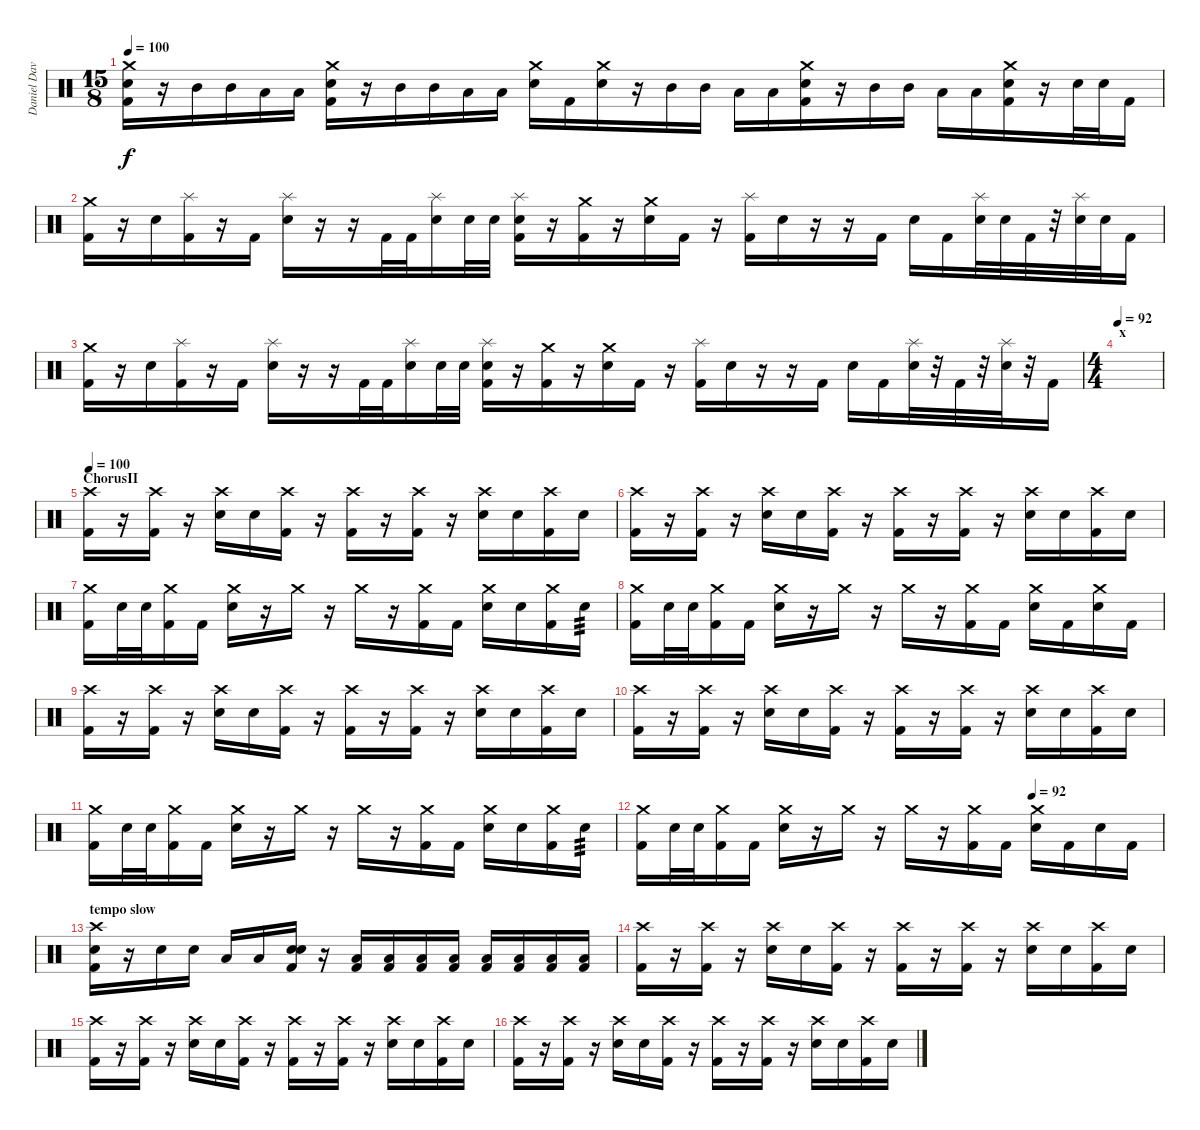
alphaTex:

\track ("Daniel Davison" "Daniel Dav") {instrument percussion}
\staff {score}
\articulation defaults
\ts (15 8)
\tempo 100
\clef neutral
\ks c
("Crash medium (hit)" "Electric Snare (hit)" "Kick (hit) 2").16{dy f} r.16 "Mid Tom (hit)".16 "Mid Tom (hit)".16 "Low Tom (hit)".16 "Low Tom (hit)".16 ("Crash medium (hit)" "Electric Snare (hit)" "Kick (hit) 2").16 r.16 "Mid Tom (hit)".16 "Mid Tom (hit)".16 "Low Tom (hit)".16 "Low Tom (hit)".16 ("Crash medium (hit)" "Electric Snare (hit)").16 "Kick (hit) 2".16 ("Crash medium (hit)" "Electric Snare (hit)").16 r.16 "Mid Tom (hit)".16 "Mid Tom (hit)".16 "Low Tom (hit)".16 "Low Tom (hit)".16 ("Crash medium (hit)" "Electric Snare (hit)" "Kick (hit) 2").16 r.16 "Mid Tom (hit)".16 "Mid Tom (hit)".16 "Low Tom (hit)".16 "Low Tom (hit)".16 ("Crash medium (hit)" "Electric Snare (hit)" "Kick (hit) 2").16 r.16 "Electric Snare (hit)".32 "Electric Snare (hit)".32 "Kick (hit) 2".16 |
("Crash medium (hit)" "Kick (hit) 2").16 r.16 "Electric Snare (hit)".16 ("Splash (hit)" "Kick (hit) 2").16 r.16 "Kick (hit) 2".16 ("Splash (hit)" "Electric Snare (hit)").16 r.16 r.16 "Kick (hit) 2".32 "Kick (hit) 2".32 ("Splash (hit)" "Electric Snare (hit)").16 "Electric Snare (hit)".32 "Electric Snare (hit)".32 ("Splash (hit)" "Electric Snare (hit)" "Kick (hit) 2").16 r.16 ("Crash medium (hit)" "Kick (hit) 2").16 r.16 ("Crash medium (hit)" "Electric Snare (hit)").16 "Kick (hit) 2".16 r.16 ("Splash (hit)" "Kick (hit) 2").16 "Electric Snare (hit)".16 r.16 r.16 "Kick (hit) 2".16 "Electric Snare (hit)".16 "Kick (hit) 2".16 ("Splash (hit)" "Electric Snare (hit)").32 "Electric Snare (hit)".32 "Kick (hit) 2".32 r.32 ("Splash (hit)" "Electric Snare (hit)").32 "Electric Snare (hit)".32 "Kick (hit) 2".16 |
("Crash medium (hit)" "Kick (hit) 2").16 r.16 "Electric Snare (hit)".16 ("Splash (hit)" "Kick (hit) 2").16 r.16 "Kick (hit) 2".16 ("Splash (hit)" "Electric Snare (hit)").16 r.16 r.16 "Kick (hit) 2".32 "Kick (hit) 2".32 ("Splash (hit)" "Electric Snare (hit)").16 "Electric Snare (hit)".32 "Electric Snare (hit)".32 ("Splash (hit)" "Electric Snare (hit)" "Kick (hit) 2").16 r.16 ("Crash medium (hit)" "Kick (hit) 2").16 r.16 ("Crash medium (hit)" "Electric Snare (hit)").16 "Kick (hit) 2".16 r.16 ("Splash (hit)" "Kick (hit) 2").16 "Electric Snare (hit)".16 r.16 r.16 "Kick (hit) 2".16 "Electric Snare (hit)".16 "Kick (hit) 2".16 ("Splash (hit)" "Electric Snare (hit)").32 r.32 "Kick (hit) 2".32 r.32 ("Splash (hit)" "Electric Snare (hit)").32 r.32 "Kick (hit) 2".16 |
\ts (4 4)
\section ("" "x")
\tempo 92
|
\section ("" "ChorusII")
\tempo 100
("Crash high (hit)" "Kick (hit) 2").16{volume 13} r.16 ("Crash high (hit)" "Kick (hit) 2").16 r.16 ("Crash high (hit)" "Electric Snare (hit)").16 "Electric Snare (hit)".16 ("Crash high (hit)" "Kick (hit) 2").16 r.16 ("Crash high (hit)" "Kick (hit) 2").16 r.16 ("Crash high (hit)" "Kick (hit) 2").16 r.16 ("Crash high (hit)" "Electric Snare (hit)").16 "Electric Snare (hit)".16 ("Crash high (hit)" "Kick (hit) 2").16 "Electric Snare (hit)".16 |
("Crash high (hit)" "Kick (hit) 2").16{volume 13} r.16 ("Crash high (hit)" "Kick (hit) 2").16 r.16 ("Crash high (hit)" "Electric Snare (hit)").16 "Electric Snare (hit)".16 ("Crash high (hit)" "Kick (hit) 2").16 r.16 ("Crash high (hit)" "Kick (hit) 2").16 r.16 ("Crash high (hit)" "Kick (hit) 2").16 r.16 ("Crash high (hit)" "Electric Snare (hit)").16 "Electric Snare (hit)".16 ("Crash high (hit)" "Kick (hit) 2").16 "Electric Snare (hit)".16 |
("Crash medium (hit)" "Kick (hit) 2").16 "Electric Snare (hit)".32 "Electric Snare (hit)".32 ("Crash medium (hit)" "Kick (hit) 2").16 "Kick (hit) 2".16 ("Crash medium (hit)" "Electric Snare (hit)").16 r.16 "Crash medium (hit)".16 r.16 "Crash medium (hit)".16 r.16 ("Crash medium (hit)" "Kick (hit) 2").16 "Kick (hit) 2".16 ("Crash medium (hit)" "Electric Snare (hit)").16 "Electric Snare (hit)".16 ("Crash medium (hit)" "Kick (hit) 2").16 "Electric Snare (hit)".16{tp 3} |
("Crash medium (hit)" "Kick (hit) 2").16 "Electric Snare (hit)".32 "Electric Snare (hit)".32 ("Crash medium (hit)" "Kick (hit) 2").16 "Kick (hit) 2".16 ("Crash medium (hit)" "Electric Snare (hit)").16 r.16 "Crash medium (hit)".16 r.16 "Crash medium (hit)".16 r.16 ("Crash medium (hit)" "Kick (hit) 2").16 "Kick (hit) 2".16 ("Crash medium (hit)" "Electric Snare (hit)").16 "Kick (hit) 2".16 ("Crash medium (hit)" "Electric Snare (hit)").16 "Kick (hit) 2".16 |
("Crash high (hit)" "Kick (hit) 2").16{volume 13} r.16 ("Crash high (hit)" "Kick (hit) 2").16 r.16 ("Crash high (hit)" "Electric Snare (hit)").16 "Electric Snare (hit)".16 ("Crash high (hit)" "Kick (hit) 2").16 r.16 ("Crash high (hit)" "Kick (hit) 2").16 r.16 ("Crash high (hit)" "Kick (hit) 2").16 r.16 ("Crash high (hit)" "Electric Snare (hit)").16 "Electric Snare (hit)".16 ("Crash high (hit)" "Kick (hit) 2").16 "Electric Snare (hit)".16 |
("Crash high (hit)" "Kick (hit) 2").16{volume 13} r.16 ("Crash high (hit)" "Kick (hit) 2").16 r.16 ("Crash high (hit)" "Electric Snare (hit)").16 "Electric Snare (hit)".16 ("Crash high (hit)" "Kick (hit) 2").16 r.16 ("Crash high (hit)" "Kick (hit) 2").16 r.16 ("Crash high (hit)" "Kick (hit) 2").16 r.16 ("Crash high (hit)" "Electric Snare (hit)").16 "Electric Snare (hit)".16 ("Crash high (hit)" "Kick (hit) 2").16 "Electric Snare (hit)".16 |
("Crash medium (hit)" "Kick (hit) 2").16 "Electric Snare (hit)".32 "Electric Snare (hit)".32 ("Crash medium (hit)" "Kick (hit) 2").16 "Kick (hit) 2".16 ("Crash medium (hit)" "Electric Snare (hit)").16 r.16 "Crash medium (hit)".16 r.16 "Crash medium (hit)".16 r.16 ("Crash medium (hit)" "Kick (hit) 2").16 "Kick (hit) 2".16 ("Crash medium (hit)" "Electric Snare (hit)").16 "Electric Snare (hit)".16 ("Crash medium (hit)" "Kick (hit) 2").16 "Electric Snare (hit)".16{tp 3} |
\tempo (92 0.75)
("Crash medium (hit)" "Kick (hit) 2").16 "Electric Snare (hit)".32 "Electric Snare (hit)".32 ("Crash medium (hit)" "Kick (hit) 2").16 "Kick (hit) 2".16 ("Crash medium (hit)" "Electric Snare (hit)").16 r.16 "Crash medium (hit)".16 r.16 "Crash medium (hit)".16 r.16 ("Crash medium (hit)" "Kick (hit) 2").16 "Kick (hit) 2".16 ("Crash medium (hit)" "Electric Snare (hit)").16 "Kick (hit) 2".16 "Electric Snare (hit)".16 "Kick (hit) 2".16 |
\section ("" "tempo slow")
("Crash high (hit)" "Electric Snare (hit)" "Kick (hit) 2").16 r.16 "Electric Snare (hit)".16 "Electric Snare (hit)".16 "Low Tom (hit)".16 "Low Tom (hit)".16 ("Electric Snare (hit)" "Electric Snare (hit)" "Kick (hit) 2").16 r.16 ("Low Tom (hit)" "Kick (hit) 2").16 ("Low Tom (hit)" "Kick (hit) 2").16 ("Low Tom (hit)" "Kick (hit) 2").16 ("Low Tom (hit)" "Kick (hit) 2").16 ("Low Tom (hit)" "Kick (hit) 2").16 ("Low Tom (hit)" "Kick (hit) 2").16 ("Low Tom (hit)" "Kick (hit) 2").16 ("Low Tom (hit)" "Kick (hit) 2").16 |
("Crash high (hit)" "Kick (hit) 2").16{volume 13} r.16 ("Crash high (hit)" "Kick (hit) 2").16 r.16 ("Crash high (hit)" "Electric Snare (hit)").16 "Electric Snare (hit)".16 ("Crash high (hit)" "Kick (hit) 2").16 r.16 ("Crash high (hit)" "Kick (hit) 2").16 r.16 ("Crash high (hit)" "Kick (hit) 2").16 r.16 ("Crash high (hit)" "Electric Snare (hit)").16 "Electric Snare (hit)".16 ("Crash high (hit)" "Kick (hit) 2").16 "Electric Snare (hit)".16 |
("Crash high (hit)" "Kick (hit) 2").16{volume 13} r.16 ("Crash high (hit)" "Kick (hit) 2").16 r.16 ("Crash high (hit)" "Electric Snare (hit)").16 "Electric Snare (hit)".16 ("Crash high (hit)" "Kick (hit) 2").16 r.16 ("Crash high (hit)" "Kick (hit) 2").16 r.16 ("Crash high (hit)" "Kick (hit) 2").16 r.16 ("Crash high (hit)" "Electric Snare (hit)").16 "Electric Snare (hit)".16 ("Crash high (hit)" "Kick (hit) 2").16 "Electric Snare (hit)".16 |
("Crash high (hit)" "Kick (hit) 2").16{volume 13} r.16 ("Crash high (hit)" "Kick (hit) 2").16 r.16 ("Crash high (hit)" "Electric Snare (hit)").16 "Electric Snare (hit)".16 ("Crash high (hit)" "Kick (hit) 2").16 r.16 ("Crash high (hit)" "Kick (hit) 2").16 r.16 ("Crash high (hit)" "Kick (hit) 2").16 r.16 ("Crash high (hit)" "Electric Snare (hit)").16 "Electric Snare (hit)".16 ("Crash high (hit)" "Kick (hit) 2").16 "Electric Snare (hit)".16
